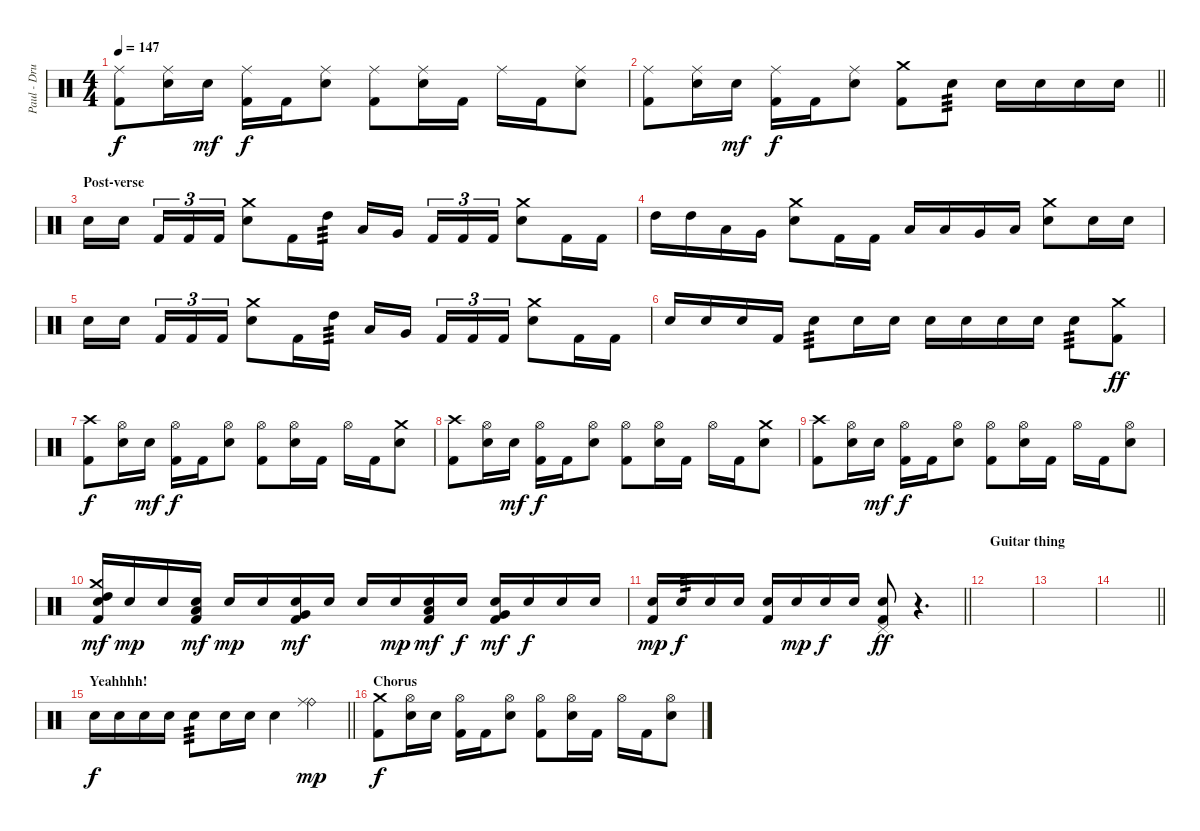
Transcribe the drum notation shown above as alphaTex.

\track ("Paul - Drums" "Paul - Dru") {instrument percussion}
\staff {score}
\articulation defaults
\ts (4 4)
\tempo 147
\clef neutral
\ks c
("Ride (middle)" "Kick (hit) 2").8{dy f} ("Ride (middle)" "Electric Snare (hit)").16 "Electric Snare (hit)".16{dy mf} ("Ride (middle)" "Kick (hit) 2").16{dy f} "Kick (hit) 2".16 ("Ride (middle)" "Electric Snare (hit)").8 ("Ride (middle)" "Kick (hit) 2").8 ("Ride (middle)" "Electric Snare (hit)").16 "Kick (hit) 2".16 "Ride (middle)".16 "Kick (hit) 2".16 ("Ride (middle)" "Electric Snare (hit)").8 |
\barLineRight lightlight
("Ride (middle)" "Kick (hit) 2").8 ("Ride (middle)" "Electric Snare (hit)").16 "Electric Snare (hit)".16{dy mf} ("Ride (middle)" "Kick (hit) 2").16{dy f} "Kick (hit) 2".16 ("Ride (middle)" "Electric Snare (hit)").8 ("Crash medium (hit)" "Kick (hit) 2").8 "Electric Snare (hit)".8{tp 3} "Electric Snare (hit)".16 "Electric Snare (hit)".16 "Electric Snare (hit)".16 "Electric Snare (hit)".16 |
\section ("" "Post-verse")
"Electric Snare (hit)".16 "Electric Snare (hit)".16{beam splitsecondary} "Kick (hit) 2".16{tu (3 2)} "Kick (hit) 2".16{tu (3 2)} "Kick (hit) 2".16{tu (3 2)} ("Crash medium (hit)" "Electric Snare (hit)").8 "Kick (hit) 2".16 "High Tom (hit)".16{tp 3} "Low Tom (hit)".16 "Very Low Tom (hit)".16{beam splitsecondary} "Kick (hit) 2".16{tu (3 2)} "Kick (hit) 2".16{tu (3 2)} "Kick (hit) 2".16{tu (3 2)} ("Crash medium (hit)" "Electric Snare (hit)").8 "Kick (hit) 2".16 "Kick (hit) 2".16 |
"High Tom (hit)".16 "High Tom (hit)".16 "Low Tom (hit)".16 "Very Low Tom (hit)".16 ("Crash medium (hit)" "Electric Snare (hit)").8 "Kick (hit) 2".16 "Kick (hit) 2".16 "Low Tom (hit)".16 "Low Tom (hit)".16 "Very Low Tom (hit)".16 "Low Floor Tom (hit)".16 ("Crash medium (hit)" "Electric Snare (hit)").8 "Electric Snare (hit)".16 "Electric Snare (hit)".16 |
"Electric Snare (hit)".16 "Electric Snare (hit)".16{beam splitsecondary} "Kick (hit) 2".16{tu (3 2)} "Kick (hit) 2".16{tu (3 2)} "Kick (hit) 2".16{tu (3 2)} ("Crash medium (hit)" "Electric Snare (hit)").8 "Kick (hit) 2".16 "High Tom (hit)".16{tp 3} "Low Tom (hit)".16 "Very Low Tom (hit)".16{beam splitsecondary} "Kick (hit) 2".16{tu (3 2)} "Kick (hit) 2".16{tu (3 2)} "Kick (hit) 2".16{tu (3 2)} ("Crash medium (hit)" "Electric Snare (hit)").8 "Kick (hit) 2".16 "Kick (hit) 2".16 |
"Electric Snare (hit)".16 "Electric Snare (hit)".16 "Electric Snare (hit)".16 "Kick (hit) 2".16 "Electric Snare (hit)".8{tp 3} "Electric Snare (hit)".16 "Electric Snare (hit)".16 "Electric Snare (hit)".16 "Electric Snare (hit)".16 "Electric Snare (hit)".16 "Electric Snare (hit)".16 "Electric Snare (hit)".8{tp 3} ("Crash medium (hit)" "Kick (hit) 2").8{dy ff} |
("Crash high (hit)" "Kick (hit) 2").8{dy f} ("Hi-Hat (open)" "Electric Snare (hit)").16 "Electric Snare (hit)".16{dy mf} ("Hi-Hat (open)" "Kick (hit) 2").16{dy f} "Kick (hit) 2".16 ("Hi-Hat (open)" "Electric Snare (hit)").8 ("Hi-Hat (open)" "Kick (hit) 2").8 ("Hi-Hat (open)" "Electric Snare (hit)").16 "Kick (hit) 2".16 "Hi-Hat (open)".16 "Kick (hit) 2".16 ("Crash medium (hit)" "Electric Snare (hit)").8 |
("Crash high (hit)" "Kick (hit) 2").8 ("Hi-Hat (open)" "Electric Snare (hit)").16 "Electric Snare (hit)".16{dy mf} ("Hi-Hat (open)" "Kick (hit) 2").16{dy f} "Kick (hit) 2".16 ("Hi-Hat (open)" "Electric Snare (hit)").8 ("Hi-Hat (open)" "Kick (hit) 2").8 ("Hi-Hat (open)" "Electric Snare (hit)").16 "Kick (hit) 2".16 "Hi-Hat (open)".16 "Kick (hit) 2".16 ("Crash medium (hit)" "Electric Snare (hit)").8 |
("Crash high (hit)" "Kick (hit) 2").8 ("Hi-Hat (open)" "Electric Snare (hit)").16 "Electric Snare (hit)".16{dy mf} ("Hi-Hat (open)" "Kick (hit) 2").16{dy f} "Kick (hit) 2".16 ("Hi-Hat (open)" "Electric Snare (hit)").8 ("Hi-Hat (open)" "Kick (hit) 2").8 ("Hi-Hat (open)" "Electric Snare (hit)").16 "Kick (hit) 2".16 "Hi-Hat (open)".16 "Kick (hit) 2".16 ("Hi-Hat (open)" "Electric Snare (hit)").8 |
("Crash medium (hit)" "High Tom (hit)" "Electric Snare (hit)" "Kick (hit) 2").16{dy mf} "Electric Snare (hit)".16{dy mp} "Electric Snare (hit)".16 ("Low Tom (hit)" "Electric Snare (hit)" "Kick (hit) 2").16{dy mf} "Electric Snare (hit)".16{dy mp} "Electric Snare (hit)".16 ("Very Low Tom (hit)" "Electric Snare (hit)" "Kick (hit) 2").16{dy mf} "Electric Snare (hit)".16 "Electric Snare (hit)".16 "Electric Snare (hit)".16{dy mp} ("Low Tom (hit)" "Electric Snare (hit)" "Kick (hit) 2").16{dy mf} "Electric Snare (hit)".16{dy f} ("Very Low Tom (hit)" "Electric Snare (hit)" "Kick (hit) 2").16{dy mf} "Electric Snare (hit)".16{dy f} "Electric Snare (hit)".16 "Electric Snare (hit)".16 |
\barLineRight lightlight
("Electric Snare (hit)" "Kick (hit) 2").16{dy mp} "Electric Snare (hit)".16{tp 3 dy f} "Electric Snare (hit)".16 "Electric Snare (hit)".16 ("Electric Snare (hit)" "Kick (hit) 2").16 "Electric Snare (hit)".16{dy mp} "Electric Snare (hit)".16{dy f} "Electric Snare (hit)".16 ("Pedal Hi-Hat (hit)" "Electric Snare (hit)" "Kick (hit) 2").8{dy ff} r.4{d} |
\section ("" "Guitar thing")
|
|
\barLineRight lightlight
|
\section ("" "Yeahhhh!")
\barLineRight lightlight "Electric Snare (hit)".16{dy f} "Electric Snare (hit)".16 "Electric Snare (hit)".16 "Electric Snare (hit)".16 "Electric Snare (hit)".8{tp 3} "Electric Snare (hit)".16 "Electric Snare (hit)".16 "Electric Snare (hit)".4
("Ride (bell)" "Ride (middle)").4{dy mp} |
\section ("" "Chorus")
("Crash medium (hit)" "Kick (hit) 2").8{dy f} ("Hi-Hat (open)" "Electric Snare (hit)").16 "Electric Snare (hit)".16 ("Hi-Hat (open)" "Kick (hit) 2").16 "Kick (hit) 2".16 ("Hi-Hat (open)" "Electric Snare (hit)").8 ("Hi-Hat (open)" "Kick (hit) 2").8 ("Hi-Hat (open)" "Electric Snare (hit)").16 "Kick (hit) 2".16 "Hi-Hat (open)".16 "Kick (hit) 2".16 ("Hi-Hat (open)" "Electric Snare (hit)").8
